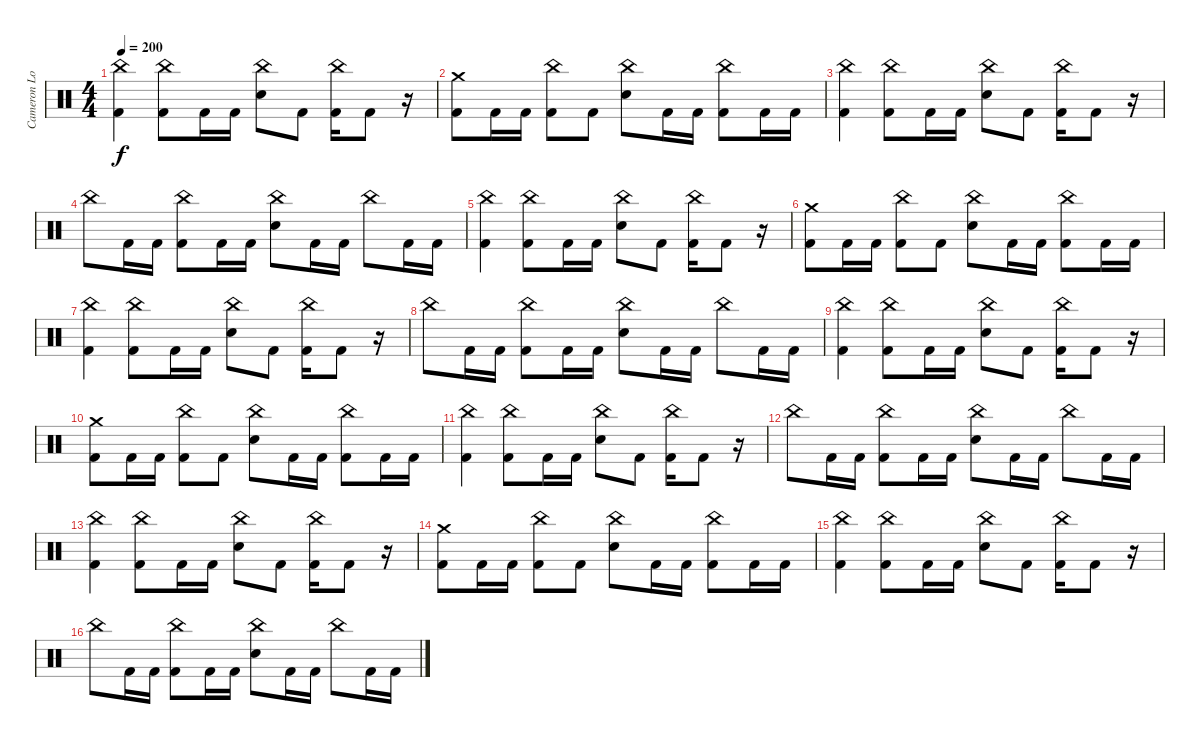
\track ("Cameron Losch - drums" "Cameron Lo") {instrument percussion}
\staff {score}
\articulation defaults
\ts (4 4)
\tempo 200
\clef neutral
\ks c
("China (hit)" "Kick (hit) 2").4{dy f} ("China (hit)" "Kick (hit) 2").8 "Kick (hit) 2".16 "Kick (hit) 2".16 ("China (hit)" "Electric Snare (hit)").8 "Kick (hit) 2".8 ("China (hit)" "Kick (hit) 2").16 "Kick (hit) 2".8 r.16 |
("Crash medium (hit)" "Kick (hit) 2").8 "Kick (hit) 2".16 "Kick (hit) 2".16 ("China (hit)" "Kick (hit) 2").8 "Kick (hit) 2".8 ("China (hit)" "Electric Snare (hit)").8 "Kick (hit) 2".16 "Kick (hit) 2".16 ("China (hit)" "Kick (hit) 2").8 "Kick (hit) 2".16 "Kick (hit) 2".16 |
("China (hit)" "Kick (hit) 2").4 ("China (hit)" "Kick (hit) 2").8 "Kick (hit) 2".16 "Kick (hit) 2".16 ("China (hit)" "Electric Snare (hit)").8 "Kick (hit) 2".8 ("China (hit)" "Kick (hit) 2").16 "Kick (hit) 2".8 r.16 |
"China (hit)".8 "Kick (hit) 2".16 "Kick (hit) 2".16 ("China (hit)" "Kick (hit) 2").8 "Kick (hit) 2".16 "Kick (hit) 2".16 ("China (hit)" "Electric Snare (hit)").8 "Kick (hit) 2".16 "Kick (hit) 2".16 "China (hit)".8 "Kick (hit) 2".16 "Kick (hit) 2".16 |
("China (hit)" "Kick (hit) 2").4 ("China (hit)" "Kick (hit) 2").8 "Kick (hit) 2".16 "Kick (hit) 2".16 ("China (hit)" "Electric Snare (hit)").8 "Kick (hit) 2".8 ("China (hit)" "Kick (hit) 2").16 "Kick (hit) 2".8 r.16 |
("Crash medium (hit)" "Kick (hit) 2").8 "Kick (hit) 2".16 "Kick (hit) 2".16 ("China (hit)" "Kick (hit) 2").8 "Kick (hit) 2".8 ("China (hit)" "Electric Snare (hit)").8 "Kick (hit) 2".16 "Kick (hit) 2".16 ("China (hit)" "Kick (hit) 2").8 "Kick (hit) 2".16 "Kick (hit) 2".16 |
("China (hit)" "Kick (hit) 2").4 ("China (hit)" "Kick (hit) 2").8 "Kick (hit) 2".16 "Kick (hit) 2".16 ("China (hit)" "Electric Snare (hit)").8 "Kick (hit) 2".8 ("China (hit)" "Kick (hit) 2").16 "Kick (hit) 2".8 r.16 |
"China (hit)".8 "Kick (hit) 2".16 "Kick (hit) 2".16 ("China (hit)" "Kick (hit) 2").8 "Kick (hit) 2".16 "Kick (hit) 2".16 ("China (hit)" "Electric Snare (hit)").8 "Kick (hit) 2".16 "Kick (hit) 2".16 "China (hit)".8 "Kick (hit) 2".16 "Kick (hit) 2".16 |
("China (hit)" "Kick (hit) 2").4 ("China (hit)" "Kick (hit) 2").8 "Kick (hit) 2".16 "Kick (hit) 2".16 ("China (hit)" "Electric Snare (hit)").8 "Kick (hit) 2".8 ("China (hit)" "Kick (hit) 2").16 "Kick (hit) 2".8 r.16 |
("Crash medium (hit)" "Kick (hit) 2").8 "Kick (hit) 2".16 "Kick (hit) 2".16 ("China (hit)" "Kick (hit) 2").8 "Kick (hit) 2".8 ("China (hit)" "Electric Snare (hit)").8 "Kick (hit) 2".16 "Kick (hit) 2".16 ("China (hit)" "Kick (hit) 2").8 "Kick (hit) 2".16 "Kick (hit) 2".16 |
("China (hit)" "Kick (hit) 2").4 ("China (hit)" "Kick (hit) 2").8 "Kick (hit) 2".16 "Kick (hit) 2".16 ("China (hit)" "Electric Snare (hit)").8 "Kick (hit) 2".8 ("China (hit)" "Kick (hit) 2").16 "Kick (hit) 2".8 r.16 |
"China (hit)".8 "Kick (hit) 2".16 "Kick (hit) 2".16 ("China (hit)" "Kick (hit) 2").8 "Kick (hit) 2".16 "Kick (hit) 2".16 ("China (hit)" "Electric Snare (hit)").8 "Kick (hit) 2".16 "Kick (hit) 2".16 "China (hit)".8 "Kick (hit) 2".16 "Kick (hit) 2".16 |
("China (hit)" "Kick (hit) 2").4 ("China (hit)" "Kick (hit) 2").8 "Kick (hit) 2".16 "Kick (hit) 2".16 ("China (hit)" "Electric Snare (hit)").8 "Kick (hit) 2".8 ("China (hit)" "Kick (hit) 2").16 "Kick (hit) 2".8 r.16 |
("Crash medium (hit)" "Kick (hit) 2").8 "Kick (hit) 2".16 "Kick (hit) 2".16 ("China (hit)" "Kick (hit) 2").8 "Kick (hit) 2".8 ("China (hit)" "Electric Snare (hit)").8 "Kick (hit) 2".16 "Kick (hit) 2".16 ("China (hit)" "Kick (hit) 2").8 "Kick (hit) 2".16 "Kick (hit) 2".16 |
("China (hit)" "Kick (hit) 2").4 ("China (hit)" "Kick (hit) 2").8 "Kick (hit) 2".16 "Kick (hit) 2".16 ("China (hit)" "Electric Snare (hit)").8 "Kick (hit) 2".8 ("China (hit)" "Kick (hit) 2").16 "Kick (hit) 2".8 r.16 |
"China (hit)".8 "Kick (hit) 2".16 "Kick (hit) 2".16 ("China (hit)" "Kick (hit) 2").8 "Kick (hit) 2".16 "Kick (hit) 2".16 ("China (hit)" "Electric Snare (hit)").8 "Kick (hit) 2".16 "Kick (hit) 2".16 "China (hit)".8 "Kick (hit) 2".16 "Kick (hit) 2".16
